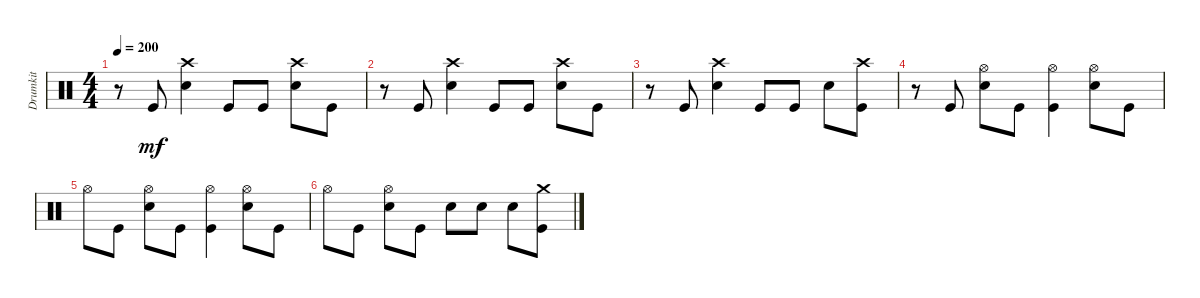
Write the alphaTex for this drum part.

\track ("Drumkit" "Drumkit") {instrument percussion}
\staff {score}
\articulation defaults
\ts (4 4)
\tempo 200
\clef neutral
\ks c
r.8{dy mf} "Kick (hit)".8 ("Snare (hit) 2" "Crash high (hit)").4 "Kick (hit)".8 "Kick (hit)".8 ("Snare (hit) 2" "Crash high (hit)").8 "Kick (hit)".8 |
r.8 "Kick (hit)".8 ("Snare (hit) 2" "Crash high (hit)").4 "Kick (hit)".8 "Kick (hit)".8 ("Snare (hit) 2" "Crash high (hit)").8 "Kick (hit)".8 |
r.8 "Kick (hit)".8 ("Snare (hit) 2" "Crash high (hit)").4 "Kick (hit)".8 "Kick (hit)".8 "Snare (hit) 2".8 ("Kick (hit)" "Crash high (hit)").8 |
r.8 "Kick (hit)".8 ("Snare (hit) 2" "Hi-Hat (open)").8 "Kick (hit)".8 ("Kick (hit)" "Hi-Hat (open)").4 ("Snare (hit) 2" "Hi-Hat (open)").8 "Kick (hit)".8 |
"Hi-Hat (open)".8 "Kick (hit)".8 ("Snare (hit) 2" "Hi-Hat (open)").8 "Kick (hit)".8 ("Kick (hit)" "Hi-Hat (open)").4 ("Snare (hit) 2" "Hi-Hat (open)").8 "Kick (hit)".8 |
"Hi-Hat (open)".8 "Kick (hit)".8 ("Snare (hit) 2" "Hi-Hat (open)").8 "Kick (hit)".8 "Snare (hit) 2".8 "Snare (hit) 2".8 "Snare (hit) 2".8 ("Crash medium (hit)" "Kick (hit)").8
